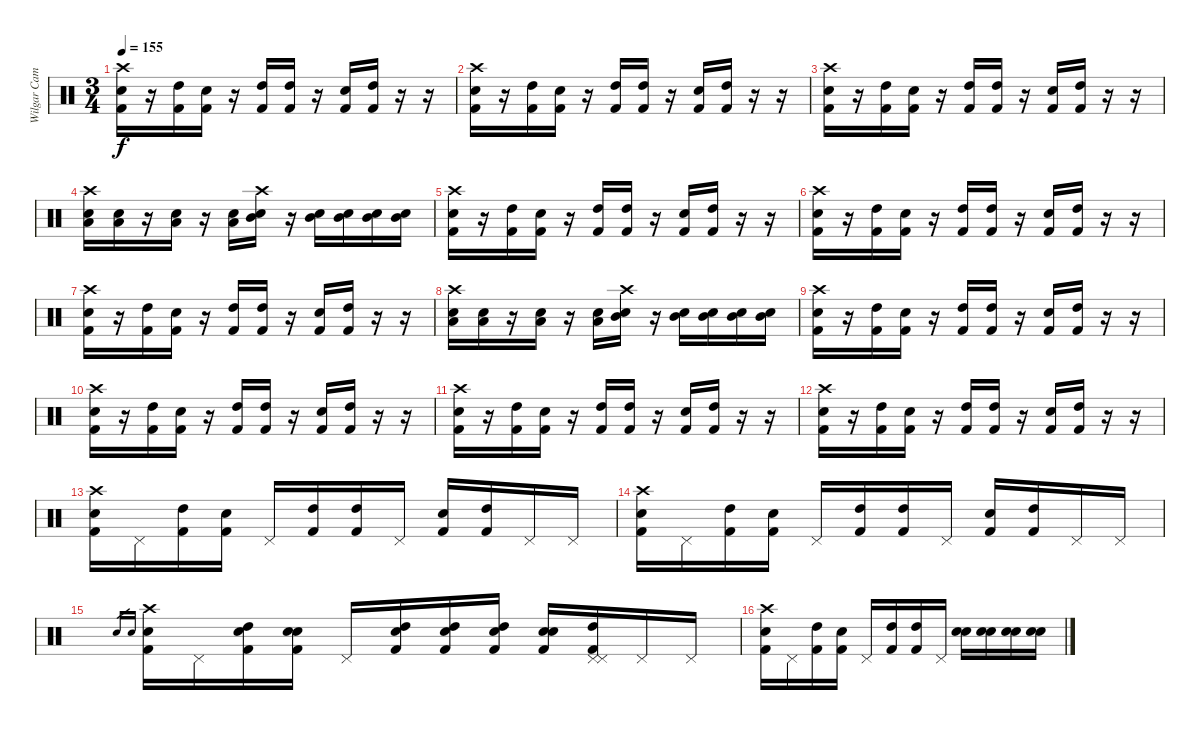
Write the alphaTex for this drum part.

\track ("Wilgar Campbell" "Wilgar Cam") {instrument percussion}
\staff {score}
\articulation defaults
\ts (3 4)
\tempo 155
\clef neutral
\ks c
("Kick (hit) 2" "Snare (hit) 2" "Crash high (hit)").16{dy f} r.16 ("Kick (hit) 2" "High Tom (hit)").16 ("Kick (hit) 2" "Snare (hit) 2").16 r.16 ("High Tom (hit)" "Kick (hit) 2").16 ("High Tom (hit)" "Kick (hit) 2").16 r.16 ("Electric Snare (hit)" "Kick (hit) 2").16 ("High Tom (hit)" "Kick (hit) 2").16 r.16 r.16 |
("Kick (hit) 2" "Snare (hit) 2" "Crash high (hit)").16 r.16 ("Kick (hit) 2" "High Tom (hit)").16 ("Kick (hit) 2" "Snare (hit) 2").16 r.16 ("High Tom (hit)" "Kick (hit) 2").16 ("High Tom (hit)" "Kick (hit) 2").16 r.16 ("Electric Snare (hit)" "Kick (hit) 2").16 ("High Tom (hit)" "Kick (hit) 2").16 r.16 r.16 |
("Kick (hit) 2" "Snare (hit) 2" "Crash high (hit)").16 r.16 ("Kick (hit) 2" "High Tom (hit)").16 ("Kick (hit) 2" "Snare (hit) 2").16 r.16 ("High Tom (hit)" "Kick (hit) 2").16 ("High Tom (hit)" "Kick (hit) 2").16 r.16 ("Electric Snare (hit)" "Kick (hit) 2").16 ("High Tom (hit)" "Kick (hit) 2").16 r.16 r.16 |
("Crash high (hit)" "Low Tom (hit)" "Snare (hit) 2").16 ("Low Tom (hit)" "Snare (hit) 2").16 r.16 ("Low Tom (hit)" "Snare (hit) 2").16 r.16 ("Low Tom (hit)" "Snare (hit) 2").16 ("Crash high (hit)" "Mid Tom (hit)" "Snare (hit) 2").16 r.16 ("Mid Tom (hit)" "Snare (hit) 2").16 ("Mid Tom (hit)" "Snare (hit) 2").16 ("Mid Tom (hit)" "Snare (hit) 2").16 ("Mid Tom (hit)" "Snare (hit) 2").16 |
("Kick (hit) 2" "Snare (hit) 2" "Crash high (hit)").16 r.16 ("Kick (hit) 2" "High Tom (hit)").16 ("Kick (hit) 2" "Snare (hit) 2").16 r.16 ("High Tom (hit)" "Kick (hit) 2").16 ("High Tom (hit)" "Kick (hit) 2").16 r.16 ("Electric Snare (hit)" "Kick (hit) 2").16 ("High Tom (hit)" "Kick (hit) 2").16 r.16 r.16 |
("Kick (hit) 2" "Snare (hit) 2" "Crash high (hit)").16 r.16 ("Kick (hit) 2" "High Tom (hit)").16 ("Kick (hit) 2" "Snare (hit) 2").16 r.16 ("High Tom (hit)" "Kick (hit) 2").16 ("High Tom (hit)" "Kick (hit) 2").16 r.16 ("Electric Snare (hit)" "Kick (hit) 2").16 ("High Tom (hit)" "Kick (hit) 2").16 r.16 r.16 |
("Kick (hit) 2" "Snare (hit) 2" "Crash high (hit)").16 r.16 ("Kick (hit) 2" "High Tom (hit)").16 ("Kick (hit) 2" "Snare (hit) 2").16 r.16 ("High Tom (hit)" "Kick (hit) 2").16 ("High Tom (hit)" "Kick (hit) 2").16 r.16 ("Electric Snare (hit)" "Kick (hit) 2").16 ("High Tom (hit)" "Kick (hit) 2").16 r.16 r.16 |
("Crash high (hit)" "Low Tom (hit)" "Snare (hit) 2").16 ("Low Tom (hit)" "Snare (hit) 2").16 r.16 ("Low Tom (hit)" "Snare (hit) 2").16 r.16 ("Low Tom (hit)" "Snare (hit) 2").16 ("Crash high (hit)" "Mid Tom (hit)" "Snare (hit) 2").16 r.16 ("Mid Tom (hit)" "Snare (hit) 2").16 ("Mid Tom (hit)" "Snare (hit) 2").16 ("Mid Tom (hit)" "Snare (hit) 2").16 ("Mid Tom (hit)" "Snare (hit) 2").16 |
("Kick (hit) 2" "Snare (hit) 2" "Crash high (hit)").16 r.16 ("Kick (hit) 2" "High Tom (hit)").16 ("Kick (hit) 2" "Snare (hit) 2").16 r.16 ("High Tom (hit)" "Kick (hit) 2").16 ("High Tom (hit)" "Kick (hit) 2").16 r.16 ("Electric Snare (hit)" "Kick (hit) 2").16 ("High Tom (hit)" "Kick (hit) 2").16 r.16 r.16 |
("Kick (hit) 2" "Snare (hit) 2" "Crash high (hit)").16 r.16 ("Kick (hit) 2" "High Tom (hit)").16 ("Kick (hit) 2" "Snare (hit) 2").16 r.16 ("High Tom (hit)" "Kick (hit) 2").16 ("High Tom (hit)" "Kick (hit) 2").16 r.16 ("Electric Snare (hit)" "Kick (hit) 2").16 ("High Tom (hit)" "Kick (hit) 2").16 r.16 r.16 |
("Kick (hit) 2" "Snare (hit) 2" "Crash high (hit)").16 r.16 ("Kick (hit) 2" "High Tom (hit)").16 ("Kick (hit) 2" "Snare (hit) 2").16 r.16 ("High Tom (hit)" "Kick (hit) 2").16 ("High Tom (hit)" "Kick (hit) 2").16 r.16 ("Electric Snare (hit)" "Kick (hit) 2").16 ("High Tom (hit)" "Kick (hit) 2").16 r.16 r.16 |
("Kick (hit) 2" "Snare (hit) 2" "Crash high (hit)").16 r.16 ("Kick (hit) 2" "High Tom (hit)").16 ("Kick (hit) 2" "Snare (hit) 2").16 r.16 ("High Tom (hit)" "Kick (hit) 2").16 ("High Tom (hit)" "Kick (hit) 2").16 r.16 ("Electric Snare (hit)" "Kick (hit) 2").16 ("High Tom (hit)" "Kick (hit) 2").16 r.16 r.16 |
("Kick (hit) 2" "Snare (hit) 2" "Crash high (hit)").16 "Pedal Hi-Hat (hit)".16 ("Kick (hit) 2" "High Tom (hit)").16 ("Kick (hit) 2" "Snare (hit) 2").16 "Pedal Hi-Hat (hit)".16 ("High Tom (hit)" "Kick (hit) 2").16 ("High Tom (hit)" "Kick (hit) 2").16 "Pedal Hi-Hat (hit)".16 ("Electric Snare (hit)" "Kick (hit) 2").16 ("High Tom (hit)" "Kick (hit) 2").16 "Pedal Hi-Hat (hit)".16 "Pedal Hi-Hat (hit)".16 |
("Kick (hit) 2" "Snare (hit) 2" "Crash high (hit)").16 "Pedal Hi-Hat (hit)".16 ("Kick (hit) 2" "High Tom (hit)").16 ("Kick (hit) 2" "Snare (hit) 2").16 "Pedal Hi-Hat (hit)".16 ("High Tom (hit)" "Kick (hit) 2").16 ("High Tom (hit)" "Kick (hit) 2").16 "Pedal Hi-Hat (hit)".16 ("Electric Snare (hit)" "Kick (hit) 2").16 ("High Tom (hit)" "Kick (hit) 2").16 "Pedal Hi-Hat (hit)".16 "Pedal Hi-Hat (hit)".16 |
"Electric Snare (hit)".16{gr} "Electric Snare (hit)".16{gr} ("Kick (hit) 2" "Snare (hit) 2" "Crash high (hit)").16 "Pedal Hi-Hat (hit)".16 ("Electric Snare (hit)" "Kick (hit) 2" "High Tom (hit)").16 ("Electric Snare (hit)" "Kick (hit) 2" "Snare (hit) 2").16 "Pedal Hi-Hat (hit)".16 ("Electric Snare (hit)" "High Tom (hit)" "Kick (hit) 2").16 ("Electric Snare (hit)" "High Tom (hit)" "Kick (hit) 2").16 ("Electric Snare (hit)" "High Tom (hit)" "Kick (hit) 2").16 ("Electric Snare (hit)" "Electric Snare (hit)" "Kick (hit) 2").16 ("Kick (hit) 2" "Pedal Hi-Hat (hit)" "High Tom (hit)" "Pedal Hi-Hat (hit)").16 "Pedal Hi-Hat (hit)".16 "Pedal Hi-Hat (hit)".16 |
("Kick (hit) 2" "Snare (hit) 2" "Crash high (hit)").16 "Pedal Hi-Hat (hit)".16 ("Kick (hit) 2" "High Tom (hit)").16 ("Kick (hit) 2" "Snare (hit) 2").16 "Pedal Hi-Hat (hit)".16 ("High Tom (hit)" "Kick (hit) 2").16 ("High Tom (hit)" "Kick (hit) 2").16 "Pedal Hi-Hat (hit)".16 ("Electric Snare (hit)" "Electric Snare (hit)").16 ("Electric Snare (hit)" "Electric Snare (hit)").16 ("Electric Snare (hit)" "Electric Snare (hit)").16 ("Electric Snare (hit)" "Electric Snare (hit)").16
